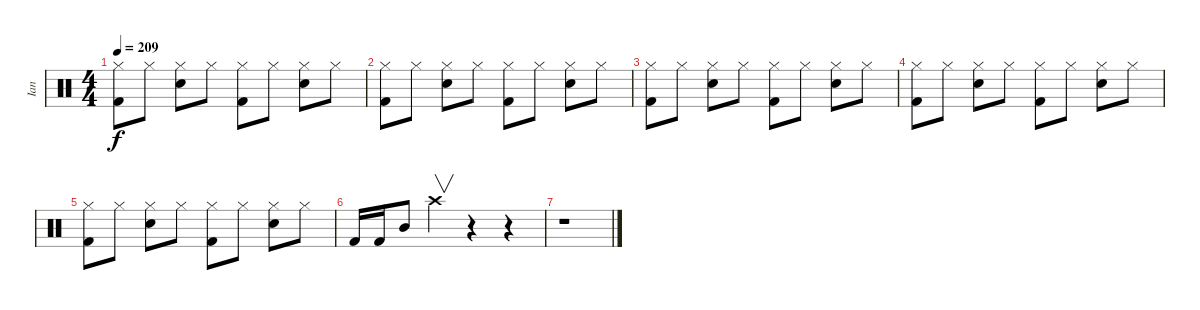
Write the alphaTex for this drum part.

\track ("Ian" "Ian") {instrument percussion}
\staff {score}
\articulation defaults
\ts (4 4)
\tempo 209
\clef neutral
\ks c
("Hi-Hat (closed)" "Kick (hit) 2").8{dy f} "Hi-Hat (closed)".8 ("Hi-Hat (closed)" "Electric Snare (hit)").8 "Hi-Hat (closed)".8 ("Hi-Hat (closed)" "Kick (hit) 2").8 "Hi-Hat (closed)".8 ("Hi-Hat (closed)" "Electric Snare (hit)").8 "Hi-Hat (closed)".8 |
("Hi-Hat (closed)" "Kick (hit) 2").8 "Hi-Hat (closed)".8 ("Hi-Hat (closed)" "Electric Snare (hit)").8 "Hi-Hat (closed)".8 ("Hi-Hat (closed)" "Kick (hit) 2").8 "Hi-Hat (closed)".8 ("Hi-Hat (closed)" "Electric Snare (hit)").8 "Hi-Hat (closed)".8 |
("Hi-Hat (closed)" "Kick (hit) 2").8 "Hi-Hat (closed)".8 ("Hi-Hat (closed)" "Electric Snare (hit)").8 "Hi-Hat (closed)".8 ("Hi-Hat (closed)" "Kick (hit) 2").8 "Hi-Hat (closed)".8 ("Hi-Hat (closed)" "Electric Snare (hit)").8 "Hi-Hat (closed)".8 |
("Hi-Hat (closed)" "Kick (hit) 2").8 "Hi-Hat (closed)".8 ("Hi-Hat (closed)" "Electric Snare (hit)").8 "Hi-Hat (closed)".8 ("Hi-Hat (closed)" "Kick (hit) 2").8 "Hi-Hat (closed)".8 ("Hi-Hat (closed)" "Electric Snare (hit)").8 "Hi-Hat (closed)".8 |
("Hi-Hat (closed)" "Kick (hit) 2").8 "Hi-Hat (closed)".8 ("Hi-Hat (closed)" "Electric Snare (hit)").8 "Hi-Hat (closed)".8 ("Hi-Hat (closed)" "Kick (hit) 2").8 "Hi-Hat (closed)".8 ("Hi-Hat (closed)" "Electric Snare (hit)").8 "Hi-Hat (closed)".8 |
"Kick (hit) 2".16 "Kick (hit) 2".16 "Mid Tom (hit)".8 "Crash high (hit)".4{v} r.4 r.4 |
r.1
